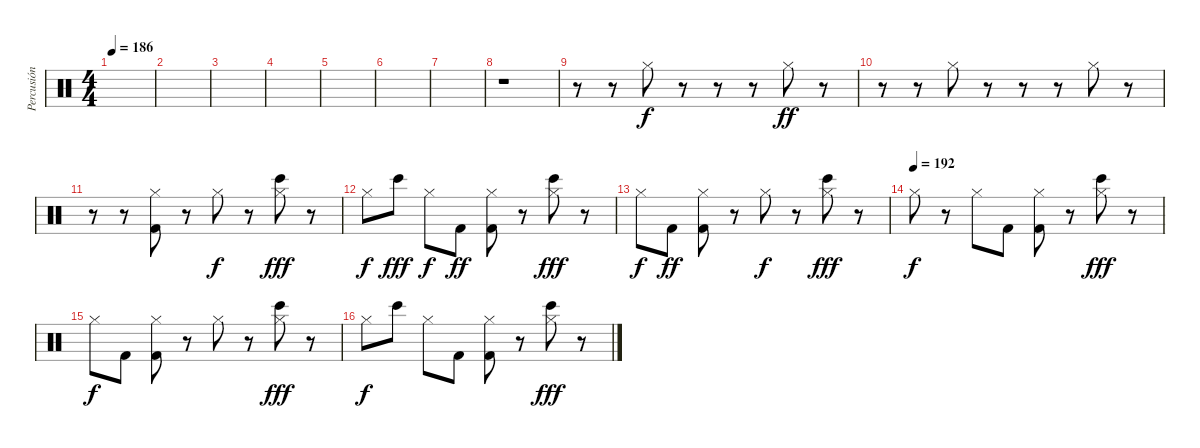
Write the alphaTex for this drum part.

\track ("Percusión" "Percusión") {instrument percussion}
\staff {score}
\articulation defaults
\ts (4 4)
\tempo 186
\clef neutral
\ks c
|
|
|
|
|
|
|
r.1 |
r.8 r.8 "Hi-Hat (closed)".8 r.8 r.8 r.8 "Hi-Hat (closed)".8{dy ff} r.8 |
r.8 r.8 "Hi-Hat (closed)".8 r.8 r.8 r.8 "Hi-Hat (closed)".8 r.8 |
r.8 r.8 ("Hi-Hat (closed)" "Kick (hit) 2").8 r.8 "Hi-Hat (closed)".8{dy f} r.8 ("Hi-Hat (closed)" "Bongo High (hit)").8{dy fff} r.8 |
"Hi-Hat (closed)".8{dy f} "Bongo High (hit)".8{dy fff} "Hi-Hat (closed)".8{dy f} "Kick (hit) 2".8{dy ff} ("Hi-Hat (closed)" "Kick (hit) 2").8 r.8 ("Hi-Hat (closed)" "Bongo High (hit)").8{dy fff} r.8 |
"Hi-Hat (closed)".8{dy f} "Kick (hit) 2".8{dy ff} ("Hi-Hat (closed)" "Kick (hit) 2").8 r.8 "Hi-Hat (closed)".8{dy f} r.8 ("Hi-Hat (closed)" "Bongo High (hit)").8{dy fff} r.8 |
\tempo (192)
"Hi-Hat (closed)".8{dy f} r.8 "Hi-Hat (closed)".8 "Kick (hit) 2".8 ("Hi-Hat (closed)" "Kick (hit) 2").8 r.8 ("Hi-Hat (closed)" "Bongo High (hit)").8{dy fff} r.8 |
"Hi-Hat (closed)".8{dy f} "Kick (hit) 2".8 ("Hi-Hat (closed)" "Kick (hit) 2").8 r.8 "Hi-Hat (closed)".8 r.8 ("Hi-Hat (closed)" "Bongo High (hit)").8{dy fff} r.8 |
"Hi-Hat (closed)".8{dy f} "Bongo High (hit)".8 "Hi-Hat (closed)".8 "Kick (hit) 2".8 ("Hi-Hat (closed)" "Kick (hit) 2").8 r.8 ("Hi-Hat (closed)" "Bongo High (hit)").8{dy fff} r.8
